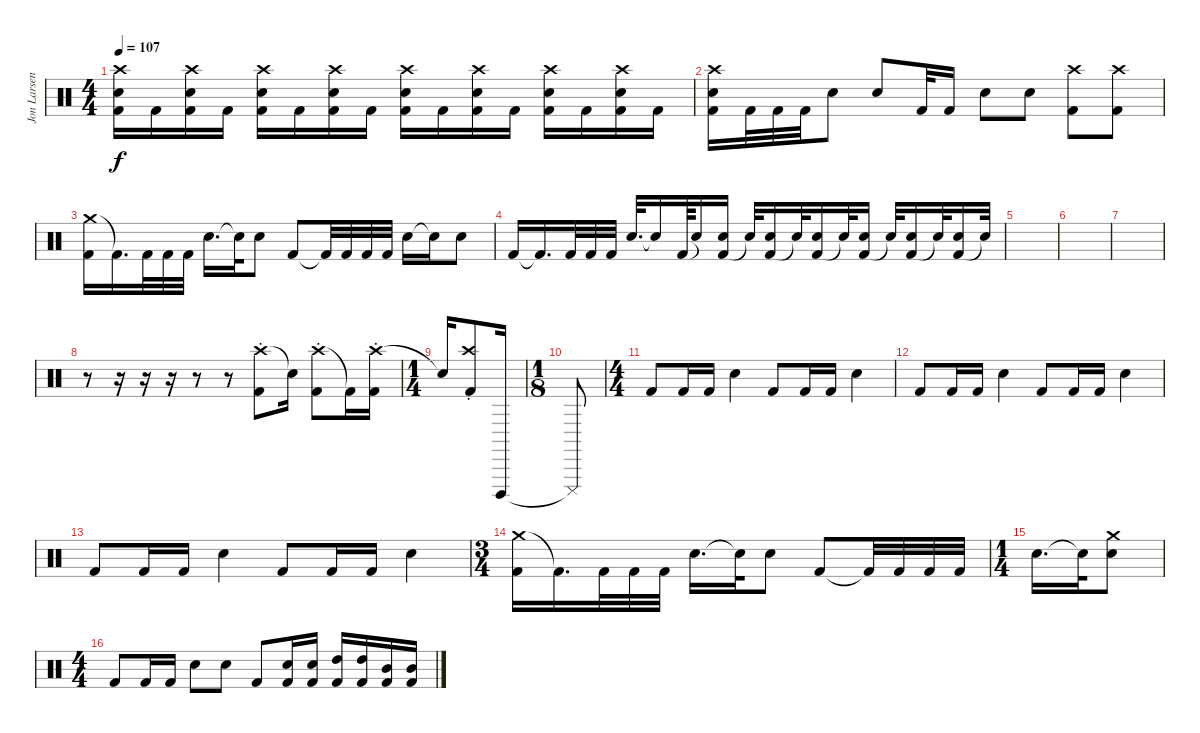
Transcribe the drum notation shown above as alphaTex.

\track ("Jon Larsen (Drums)" "Jon Larsen") {instrument percussion}
\staff {score}
\articulation defaults
\ts (4 4)
\tempo 107
\clef neutral
\ks c
("Crash high (hit)" "Electric Snare (hit)" "Kick (hit) 2").16{dy f} "Kick (hit) 2".16 ("Crash high (hit)" "Electric Snare (hit)" "Kick (hit) 2").16 "Kick (hit) 2".16 ("Crash high (hit)" "Electric Snare (hit)" "Kick (hit) 2").16 "Kick (hit) 2".16 ("Crash high (hit)" "Electric Snare (hit)" "Kick (hit) 2").16 "Kick (hit) 2".16 ("Crash high (hit)" "Electric Snare (hit)" "Kick (hit) 2").16 "Kick (hit) 2".16 ("Crash high (hit)" "Electric Snare (hit)" "Kick (hit) 2").16 "Kick (hit) 2".16 ("Crash high (hit)" "Electric Snare (hit)" "Kick (hit) 2").16 "Kick (hit) 2".16 ("Crash high (hit)" "Electric Snare (hit)" "Kick (hit) 2").16 "Kick (hit) 2".16 |
("Crash high (hit)" "Electric Snare (hit)" "Kick (hit) 2").16 "Kick (hit) 2".32 "Kick (hit) 2".32 "Kick (hit) 2".32 "Electric Snare (hit)".8 "Electric Snare (hit)".8 "Kick (hit) 2".32 "Kick (hit) 2".16 "Electric Snare (hit)".8 "Electric Snare (hit)".8 ("Crash high (hit)" "Kick (hit) 2").8 ("Crash high (hit)" "Kick (hit) 2").8 |
("Crash medium (hit)" "Kick (hit) 2").16 "Kick (hit) 2"{t}.16{d} "Kick (hit) 2".32 "Kick (hit) 2".32 "Kick (hit) 2".32 "Electric Snare (hit)".16{d} "Electric Snare (hit)"{t}.32 "Electric Snare (hit)".8 "Kick (hit) 2".8 "Kick (hit) 2"{t}.32 "Kick (hit) 2".32 "Kick (hit) 2".32 "Kick (hit) 2".32 "Electric Snare (hit)".16 "Electric Snare (hit)"{t}.16 "Electric Snare (hit)".8 |
"Kick (hit) 2".16 "Kick (hit) 2"{t}.16{d} "Kick (hit) 2".32 "Kick (hit) 2".32 "Kick (hit) 2".32 "Electric Snare (hit)".32{d} "Electric Snare (hit)"{t}.16 "Kick (hit) 2".64 "Electric Snare (hit)"{t}.16 ("Kick (hit) 2" "Electric Snare (hit)").16 "Electric Snare (hit)"{t}.32 ("Kick (hit) 2" "Electric Snare (hit)").16 "Electric Snare (hit)"{t}.32 ("Kick (hit) 2" "Electric Snare (hit)").16 "Snare (hit)"{t}.32 ("Kick (hit) 2" "Electric Snare (hit)").16 "Snare (hit)"{t}.32 ("Kick (hit) 2" "Electric Snare (hit)").16 "Snare (hit)"{t}.32 ("Kick (hit) 2" "Electric Snare (hit)").16 "Snare (hit)"{t}.32 |
|
|
|
r.8 r.16 r.16 r.16 r.8 r.8 ("Crash high (hit)"{st} "Kick (hit) 2"{st}).8 "Snare (hit)"{t}.16 ("Crash high (hit)"{st} "Kick (hit) 2"{st}).8 "Kick (hit) 2"{t}.16 ("Crash high (hit)"{st} "Kick (hit) 2"{st}).16 |
\ts (1 4)
"Snare (hit)"{t}.16 ("Crash high (hit)"{st} "Kick (hit) 2"{st}).8 "Cuica (open)".16 |
\ts (1 8)
"Cuica (mute)"{t}.8 |
\ts (4 4)
"Kick (hit) 2".8 "Kick (hit) 2".16 "Kick (hit) 2".16 "Electric Snare (hit)".4 "Kick (hit) 2".8 "Kick (hit) 2".16 "Kick (hit) 2".16 "Electric Snare (hit)".4 |
"Kick (hit) 2".8 "Kick (hit) 2".16 "Kick (hit) 2".16 "Electric Snare (hit)".4 "Kick (hit) 2".8 "Kick (hit) 2".16 "Kick (hit) 2".16 "Electric Snare (hit)".4 |
"Kick (hit) 2".8 "Kick (hit) 2".16 "Kick (hit) 2".16 "Electric Snare (hit)".4 "Kick (hit) 2".8 "Kick (hit) 2".16 "Kick (hit) 2".16 "Electric Snare (hit)".4 |
\ts (3 4)
("Crash medium (hit)" "Kick (hit) 2").16 "Kick (hit) 2"{t}.16{d} "Kick (hit) 2".32 "Kick (hit) 2".32 "Kick (hit) 2".32 "Electric Snare (hit)".16{d} "Electric Snare (hit)"{t}.32 "Electric Snare (hit)".8 "Kick (hit) 2".8 "Kick (hit) 2"{t}.32 "Kick (hit) 2".32 "Kick (hit) 2".32 "Kick (hit) 2".32 |
\ts (1 4)
"Electric Snare (hit)".16{d} "Electric Snare (hit)"{t}.32 ("Crash medium (hit)" "Electric Snare (hit)").8 |
\ts (4 4)
"Kick (hit) 2".8 "Kick (hit) 2".16 "Kick (hit) 2".16 "Electric Snare (hit)".8 "Electric Snare (hit)".8 "Kick (hit) 2".8 ("Kick (hit) 2" "Electric Snare (hit)").16 ("Kick (hit) 2" "Electric Snare (hit)").16 ("Kick (hit) 2" "High Tom (hit)").16 ("Kick (hit) 2" "High Tom (hit)").16 ("Kick (hit) 2" "Mid Tom (hit)").16 ("Kick (hit) 2" "Mid Tom (hit)").16
